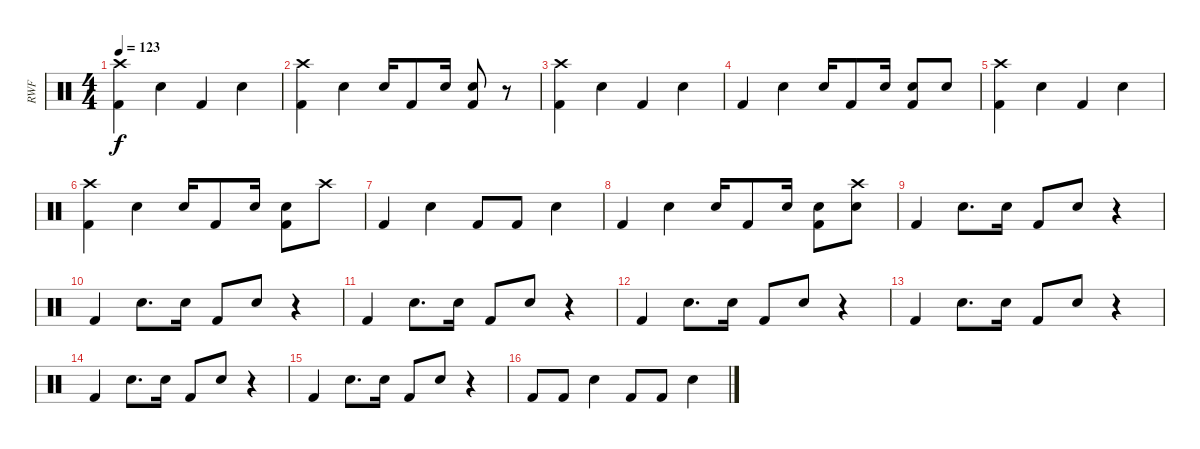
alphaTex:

\track ("RWF" "RWF") {instrument percussion}
\staff {score}
\articulation defaults
\ts (4 4)
\tempo 123
\clef neutral
\ks c
("Kick (hit) 2" "Crash high (hit)").4{dy f} "Electric Snare (hit)".4 "Kick (hit) 2".4 "Electric Snare (hit)".4 |
("Kick (hit) 2" "Crash high (hit)").4 "Electric Snare (hit)".4 "Electric Snare (hit)".16 "Kick (hit) 2".8 "Electric Snare (hit)".16 ("Kick (hit) 2" "Electric Snare (hit)").8 r.8 |
("Kick (hit) 2" "Crash high (hit)").4 "Electric Snare (hit)".4 "Kick (hit) 2".4 "Electric Snare (hit)".4 |
"Kick (hit) 2".4 "Electric Snare (hit)".4 "Electric Snare (hit)".16 "Kick (hit) 2".8 "Electric Snare (hit)".16 ("Kick (hit) 2" "Electric Snare (hit)").8 "Electric Snare (hit)".8 |
("Kick (hit) 2" "Crash high (hit)").4 "Electric Snare (hit)".4 "Kick (hit) 2".4 "Electric Snare (hit)".4 |
("Kick (hit) 2" "Crash high (hit)").4 "Electric Snare (hit)".4 "Electric Snare (hit)".16 "Kick (hit) 2".8 "Electric Snare (hit)".16 ("Kick (hit) 2" "Electric Snare (hit)").8 "Crash high (hit)".8 |
"Kick (hit) 2".4 "Electric Snare (hit)".4 "Kick (hit) 2".8 "Kick (hit) 2".8 "Electric Snare (hit)".4 |
"Kick (hit) 2".4 "Electric Snare (hit)".4 "Electric Snare (hit)".16 "Kick (hit) 2".8 "Electric Snare (hit)".16 ("Kick (hit) 2" "Electric Snare (hit)").8 ("Electric Snare (hit)" "Crash high (hit)").8 |
"Kick (hit) 2".4 "Electric Snare (hit)".8{d} "Electric Snare (hit)".16 "Kick (hit) 2".8 "Electric Snare (hit)".8 r.4 |
"Kick (hit) 2".4 "Electric Snare (hit)".8{d} "Electric Snare (hit)".16 "Kick (hit) 2".8 "Electric Snare (hit)".8 r.4 |
"Kick (hit) 2".4 "Electric Snare (hit)".8{d} "Electric Snare (hit)".16 "Kick (hit) 2".8 "Electric Snare (hit)".8 r.4 |
"Kick (hit) 2".4 "Electric Snare (hit)".8{d} "Electric Snare (hit)".16 "Kick (hit) 2".8 "Electric Snare (hit)".8 r.4 |
"Kick (hit) 2".4 "Electric Snare (hit)".8{d} "Electric Snare (hit)".16 "Kick (hit) 2".8 "Electric Snare (hit)".8 r.4 |
"Kick (hit) 2".4 "Electric Snare (hit)".8{d} "Electric Snare (hit)".16 "Kick (hit) 2".8 "Electric Snare (hit)".8 r.4 |
"Kick (hit) 2".4 "Electric Snare (hit)".8{d} "Electric Snare (hit)".16 "Kick (hit) 2".8 "Electric Snare (hit)".8 r.4 |
"Kick (hit) 2".8 "Kick (hit) 2".8 "Electric Snare (hit)".4 "Kick (hit) 2".8 "Kick (hit) 2".8 "Electric Snare (hit)".4
